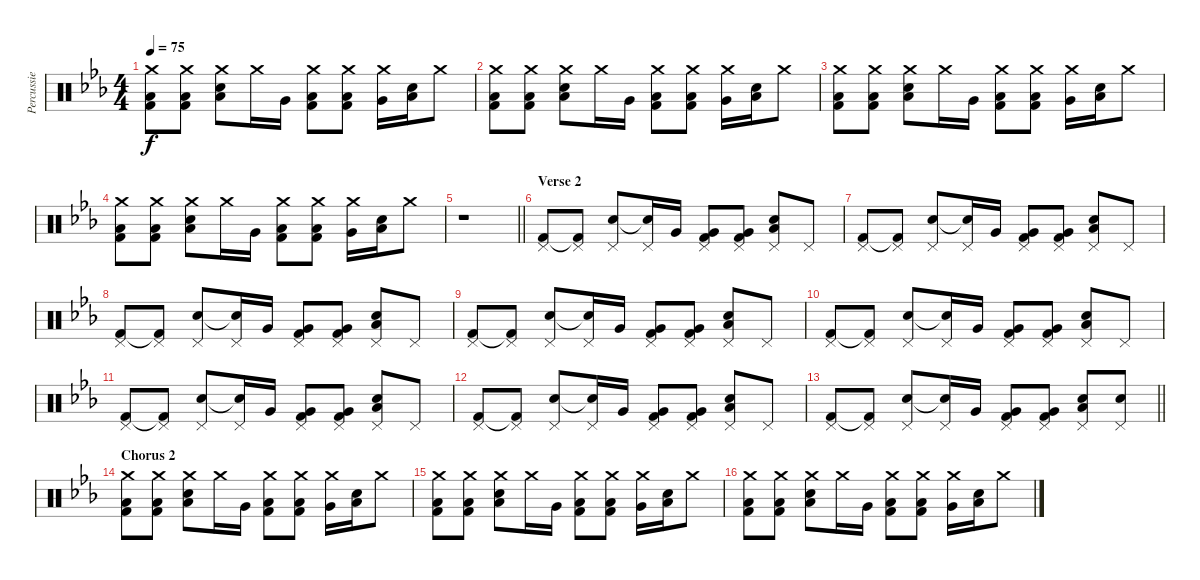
\track ("Percussie" "Percussie") {instrument percussion}
\staff {score}
\articulation defaults
\ts (4 4)
\tempo 75
\clef neutral
\ks eb
("Low Floor Tom (hit)" "Kick (hit) 2" "Crash medium (hit)").8{dy f} ("Low Floor Tom (hit)" "Kick (hit) 2" "Crash medium (hit)").8 ("Low Tom (hit)" "Electric Snare (hit)" "Crash medium (hit)").8 "Crash medium (hit)".16 "Very Low Tom (hit)".16 ("Low Floor Tom (hit)" "Kick (hit) 2" "Crash medium (hit)").8 ("Low Floor Tom (hit)" "Kick (hit) 2" "Crash medium (hit)").8 ("Very Low Tom (hit)" "Crash medium (hit)").16 ("Low Tom (hit)" "Electric Snare (hit)").16 "Crash medium (hit)".8 |
("Low Floor Tom (hit)" "Kick (hit) 2" "Crash medium (hit)").8 ("Low Floor Tom (hit)" "Kick (hit) 2" "Crash medium (hit)").8 ("Low Tom (hit)" "Electric Snare (hit)" "Crash medium (hit)").8 "Crash medium (hit)".16 "Very Low Tom (hit)".16 ("Low Floor Tom (hit)" "Kick (hit) 2" "Crash medium (hit)").8 ("Low Floor Tom (hit)" "Kick (hit) 2" "Crash medium (hit)").8 ("Very Low Tom (hit)" "Crash medium (hit)").16 ("Low Tom (hit)" "Electric Snare (hit)").16 "Crash medium (hit)".8 |
("Low Floor Tom (hit)" "Kick (hit) 2" "Crash medium (hit)").8 ("Low Floor Tom (hit)" "Kick (hit) 2" "Crash medium (hit)").8 ("Low Tom (hit)" "Electric Snare (hit)" "Crash medium (hit)").8 "Crash medium (hit)".16 "Very Low Tom (hit)".16 ("Low Floor Tom (hit)" "Kick (hit) 2" "Crash medium (hit)").8 ("Low Floor Tom (hit)" "Kick (hit) 2" "Crash medium (hit)").8 ("Very Low Tom (hit)" "Crash medium (hit)").16 ("Low Tom (hit)" "Electric Snare (hit)").16 "Crash medium (hit)".8 |
("Low Floor Tom (hit)" "Kick (hit) 2" "Crash medium (hit)").8 ("Low Floor Tom (hit)" "Kick (hit) 2" "Crash medium (hit)").8 ("Low Tom (hit)" "Electric Snare (hit)" "Crash medium (hit)").8 "Crash medium (hit)".16 "Very Low Tom (hit)".16 ("Low Floor Tom (hit)" "Kick (hit) 2" "Crash medium (hit)").8 ("Low Floor Tom (hit)" "Kick (hit) 2" "Crash medium (hit)").8 ("Very Low Tom (hit)" "Crash medium (hit)").16 ("Low Tom (hit)" "Electric Snare (hit)").16 "Crash medium (hit)".8 |
\barLineRight lightlight
r.1 |
\section ("" "Verse 2")
("Pedal Hi-Hat (hit)" "Kick (hit) 2").8 ("Pedal Hi-Hat (hit)" "Kick (hit) 2"{t}).8 ("Pedal Hi-Hat (hit)" "Electric Snare (hit)").8 ("Pedal Hi-Hat (hit)" "Electric Snare (hit)"{t}).16 "Very Low Tom (hit)".16 ("Pedal Hi-Hat (hit)" "Very Low Tom (hit)" "Kick (hit) 2").8 ("Pedal Hi-Hat (hit)" "Very Low Tom (hit)" "Kick (hit) 2").8 ("Pedal Hi-Hat (hit)" "Electric Snare (hit)" "Low Tom (hit)").8 "Pedal Hi-Hat (hit)".8 |
("Pedal Hi-Hat (hit)" "Kick (hit) 2").8 ("Pedal Hi-Hat (hit)" "Kick (hit) 2"{t}).8 ("Pedal Hi-Hat (hit)" "Electric Snare (hit)").8 ("Pedal Hi-Hat (hit)" "Electric Snare (hit)"{t}).16 "Very Low Tom (hit)".16 ("Pedal Hi-Hat (hit)" "Very Low Tom (hit)" "Kick (hit) 2").8 ("Pedal Hi-Hat (hit)" "Very Low Tom (hit)" "Kick (hit) 2").8 ("Pedal Hi-Hat (hit)" "Electric Snare (hit)" "Low Tom (hit)").8 "Pedal Hi-Hat (hit)".8 |
("Pedal Hi-Hat (hit)" "Kick (hit) 2").8 ("Pedal Hi-Hat (hit)" "Kick (hit) 2"{t}).8 ("Pedal Hi-Hat (hit)" "Electric Snare (hit)").8 ("Pedal Hi-Hat (hit)" "Electric Snare (hit)"{t}).16 "Very Low Tom (hit)".16 ("Pedal Hi-Hat (hit)" "Very Low Tom (hit)" "Kick (hit) 2").8 ("Pedal Hi-Hat (hit)" "Very Low Tom (hit)" "Kick (hit) 2").8 ("Pedal Hi-Hat (hit)" "Electric Snare (hit)" "Low Tom (hit)").8 "Pedal Hi-Hat (hit)".8 |
("Pedal Hi-Hat (hit)" "Kick (hit) 2").8 ("Pedal Hi-Hat (hit)" "Kick (hit) 2"{t}).8 ("Pedal Hi-Hat (hit)" "Electric Snare (hit)").8 ("Pedal Hi-Hat (hit)" "Electric Snare (hit)"{t}).16 "Very Low Tom (hit)".16 ("Pedal Hi-Hat (hit)" "Very Low Tom (hit)" "Kick (hit) 2").8 ("Pedal Hi-Hat (hit)" "Very Low Tom (hit)" "Kick (hit) 2").8 ("Pedal Hi-Hat (hit)" "Electric Snare (hit)" "Low Tom (hit)").8 "Pedal Hi-Hat (hit)".8 |
("Pedal Hi-Hat (hit)" "Kick (hit) 2").8 ("Pedal Hi-Hat (hit)" "Kick (hit) 2"{t}).8 ("Pedal Hi-Hat (hit)" "Electric Snare (hit)").8 ("Pedal Hi-Hat (hit)" "Electric Snare (hit)"{t}).16 "Very Low Tom (hit)".16 ("Pedal Hi-Hat (hit)" "Very Low Tom (hit)" "Kick (hit) 2").8 ("Pedal Hi-Hat (hit)" "Very Low Tom (hit)" "Kick (hit) 2").8 ("Pedal Hi-Hat (hit)" "Electric Snare (hit)" "Low Tom (hit)").8 "Pedal Hi-Hat (hit)".8 |
("Pedal Hi-Hat (hit)" "Kick (hit) 2").8 ("Pedal Hi-Hat (hit)" "Kick (hit) 2"{t}).8 ("Pedal Hi-Hat (hit)" "Electric Snare (hit)").8 ("Pedal Hi-Hat (hit)" "Electric Snare (hit)"{t}).16 "Very Low Tom (hit)".16 ("Pedal Hi-Hat (hit)" "Very Low Tom (hit)" "Kick (hit) 2").8 ("Pedal Hi-Hat (hit)" "Very Low Tom (hit)" "Kick (hit) 2").8 ("Pedal Hi-Hat (hit)" "Electric Snare (hit)" "Low Tom (hit)").8 "Pedal Hi-Hat (hit)".8 |
("Pedal Hi-Hat (hit)" "Kick (hit) 2").8 ("Pedal Hi-Hat (hit)" "Kick (hit) 2"{t}).8 ("Pedal Hi-Hat (hit)" "Electric Snare (hit)").8 ("Pedal Hi-Hat (hit)" "Electric Snare (hit)"{t}).16 "Very Low Tom (hit)".16 ("Pedal Hi-Hat (hit)" "Very Low Tom (hit)" "Kick (hit) 2").8 ("Pedal Hi-Hat (hit)" "Very Low Tom (hit)" "Kick (hit) 2").8 ("Pedal Hi-Hat (hit)" "Electric Snare (hit)" "Low Tom (hit)").8 "Pedal Hi-Hat (hit)".8 |
\barLineRight lightlight
("Pedal Hi-Hat (hit)" "Kick (hit) 2").8 ("Pedal Hi-Hat (hit)" "Kick (hit) 2"{t}).8 ("Pedal Hi-Hat (hit)" "Electric Snare (hit)").8 ("Pedal Hi-Hat (hit)" "Electric Snare (hit)"{t}).16 "Very Low Tom (hit)".16 ("Pedal Hi-Hat (hit)" "Very Low Tom (hit)" "Kick (hit) 2").8 ("Pedal Hi-Hat (hit)" "Very Low Tom (hit)" "Kick (hit) 2").8 ("Pedal Hi-Hat (hit)" "Electric Snare (hit)" "Low Tom (hit)").8 ("Pedal Hi-Hat (hit)" "Electric Snare (hit)").8 |
\section ("" "Chorus 2")
("Low Floor Tom (hit)" "Kick (hit) 2" "Crash medium (hit)").8 ("Low Floor Tom (hit)" "Kick (hit) 2" "Crash medium (hit)").8 ("Low Tom (hit)" "Electric Snare (hit)" "Crash medium (hit)").8 "Crash medium (hit)".16 "Very Low Tom (hit)".16 ("Low Floor Tom (hit)" "Kick (hit) 2" "Crash medium (hit)").8 ("Low Floor Tom (hit)" "Kick (hit) 2" "Crash medium (hit)").8 ("Very Low Tom (hit)" "Crash medium (hit)").16 ("Low Tom (hit)" "Electric Snare (hit)").16 "Crash medium (hit)".8 |
("Low Floor Tom (hit)" "Kick (hit) 2" "Crash medium (hit)").8 ("Low Floor Tom (hit)" "Kick (hit) 2" "Crash medium (hit)").8 ("Low Tom (hit)" "Electric Snare (hit)" "Crash medium (hit)").8 "Crash medium (hit)".16 "Very Low Tom (hit)".16 ("Low Floor Tom (hit)" "Kick (hit) 2" "Crash medium (hit)").8 ("Low Floor Tom (hit)" "Kick (hit) 2" "Crash medium (hit)").8 ("Very Low Tom (hit)" "Crash medium (hit)").16 ("Low Tom (hit)" "Electric Snare (hit)").16 "Crash medium (hit)".8 |
("Low Floor Tom (hit)" "Kick (hit) 2" "Crash medium (hit)").8 ("Low Floor Tom (hit)" "Kick (hit) 2" "Crash medium (hit)").8 ("Low Tom (hit)" "Electric Snare (hit)" "Crash medium (hit)").8 "Crash medium (hit)".16 "Very Low Tom (hit)".16 ("Low Floor Tom (hit)" "Kick (hit) 2" "Crash medium (hit)").8 ("Low Floor Tom (hit)" "Kick (hit) 2" "Crash medium (hit)").8 ("Very Low Tom (hit)" "Crash medium (hit)").16 ("Low Tom (hit)" "Electric Snare (hit)").16 "Crash medium (hit)".8
